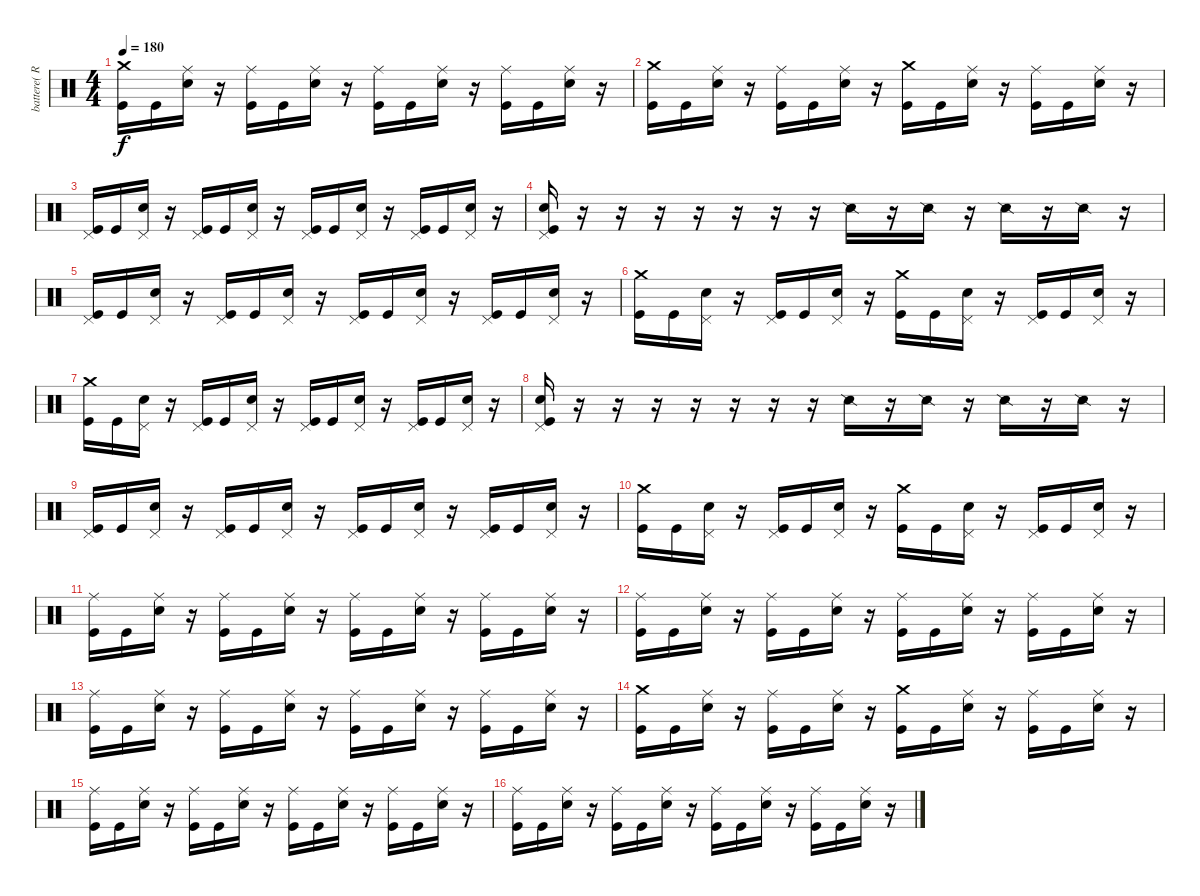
\track ("battere( Rob )" "battere( R") {instrument percussion}
\staff {score}
\articulation defaults
\ts (4 4)
\tempo 180
\clef neutral
\ks c
("Crash medium (hit)" "Kick (hit)").16{dy f} "Kick (hit)".16 ("Ride (middle)" "Snare (hit) 2").16 r.16 ("Ride (middle)" "Kick (hit)").16 "Kick (hit)".16 ("Ride (middle)" "Snare (hit) 2").16 r.16 ("Ride (middle)" "Kick (hit)").16 "Kick (hit)".16 ("Ride (middle)" "Snare (hit) 2").16 r.16 ("Ride (middle)" "Kick (hit)").16 "Kick (hit)".16 ("Ride (middle)" "Snare (hit) 2").16 r.16 |
("Crash medium (hit)" "Kick (hit)").16 "Kick (hit)".16 ("Ride (middle)" "Snare (hit) 2").16 r.16 ("Ride (middle)" "Kick (hit)").16 "Kick (hit)".16 ("Ride (middle)" "Snare (hit) 2").16 r.16 ("Crash medium (hit)" "Kick (hit)").16 "Kick (hit)".16 ("Ride (middle)" "Snare (hit) 2").16 r.16 ("Ride (middle)" "Kick (hit)").16 "Kick (hit)".16 ("Ride (middle)" "Snare (hit) 2").16 r.16 |
("Pedal Hi-Hat (hit)" "Kick (hit)").16 "Kick (hit)".16 ("Pedal Hi-Hat (hit)" "Snare (hit) 2").16 r.16 ("Pedal Hi-Hat (hit)" "Kick (hit)").16 "Kick (hit)".16 ("Pedal Hi-Hat (hit)" "Snare (hit) 2").16 r.16 ("Pedal Hi-Hat (hit)" "Kick (hit)").16 "Kick (hit)".16 ("Pedal Hi-Hat (hit)" "Snare (hit) 2").16 r.16 ("Pedal Hi-Hat (hit)" "Kick (hit)").16 "Kick (hit)".16 ("Pedal Hi-Hat (hit)" "Snare (hit) 2").16 r.16 |
("Pedal Hi-Hat (hit)" "Snare (hit) 2" "Kick (hit)").16 r.16 r.16 r.16 r.16 r.16 r.16 r.16 "Snare (side stick) 2".16 r.16 "Snare (side stick) 2".16 r.16 "Snare (side stick) 2".16 r.16 "Snare (side stick) 2".16 r.16 |
("Pedal Hi-Hat (hit)" "Kick (hit)").16 "Kick (hit)".16 ("Pedal Hi-Hat (hit)" "Snare (hit) 2").16 r.16 ("Pedal Hi-Hat (hit)" "Kick (hit)").16 "Kick (hit)".16 ("Pedal Hi-Hat (hit)" "Snare (hit) 2").16 r.16 ("Pedal Hi-Hat (hit)" "Kick (hit)").16 "Kick (hit)".16 ("Pedal Hi-Hat (hit)" "Snare (hit) 2").16 r.16 ("Pedal Hi-Hat (hit)" "Kick (hit)").16 "Kick (hit)".16 ("Pedal Hi-Hat (hit)" "Snare (hit) 2").16 r.16 |
("Crash medium (hit)" "Kick (hit)").16 "Kick (hit)".16 ("Pedal Hi-Hat (hit)" "Snare (hit) 2").16 r.16 ("Pedal Hi-Hat (hit)" "Kick (hit)").16 "Kick (hit)".16 ("Pedal Hi-Hat (hit)" "Snare (hit) 2").16 r.16 ("Crash medium (hit)" "Kick (hit)").16 "Kick (hit)".16 ("Pedal Hi-Hat (hit)" "Snare (hit) 2").16 r.16 ("Pedal Hi-Hat (hit)" "Kick (hit)").16 "Kick (hit)".16 ("Pedal Hi-Hat (hit)" "Snare (hit) 2").16 r.16 |
("Crash medium (hit)" "Kick (hit)").16 "Kick (hit)".16 ("Pedal Hi-Hat (hit)" "Snare (hit) 2").16 r.16 ("Pedal Hi-Hat (hit)" "Kick (hit)").16 "Kick (hit)".16 ("Pedal Hi-Hat (hit)" "Snare (hit) 2").16 r.16 ("Pedal Hi-Hat (hit)" "Kick (hit)").16 "Kick (hit)".16 ("Pedal Hi-Hat (hit)" "Snare (hit) 2").16 r.16 ("Pedal Hi-Hat (hit)" "Kick (hit)").16 "Kick (hit)".16 ("Pedal Hi-Hat (hit)" "Snare (hit) 2").16 r.16 |
("Pedal Hi-Hat (hit)" "Snare (hit) 2" "Kick (hit)").16 r.16 r.16 r.16 r.16 r.16 r.16 r.16 "Snare (side stick) 2".16 r.16 "Snare (side stick) 2".16 r.16 "Snare (side stick) 2".16 r.16 "Snare (side stick) 2".16 r.16 |
("Pedal Hi-Hat (hit)" "Kick (hit)").16 "Kick (hit)".16 ("Pedal Hi-Hat (hit)" "Snare (hit) 2").16 r.16 ("Pedal Hi-Hat (hit)" "Kick (hit)").16 "Kick (hit)".16 ("Pedal Hi-Hat (hit)" "Snare (hit) 2").16 r.16 ("Pedal Hi-Hat (hit)" "Kick (hit)").16 "Kick (hit)".16 ("Pedal Hi-Hat (hit)" "Snare (hit) 2").16 r.16 ("Pedal Hi-Hat (hit)" "Kick (hit)").16 "Kick (hit)".16 ("Pedal Hi-Hat (hit)" "Snare (hit) 2").16 r.16 |
("Crash medium (hit)" "Kick (hit)").16 "Kick (hit)".16 ("Pedal Hi-Hat (hit)" "Snare (hit) 2").16 r.16 ("Pedal Hi-Hat (hit)" "Kick (hit)").16 "Kick (hit)".16 ("Pedal Hi-Hat (hit)" "Snare (hit) 2").16 r.16 ("Crash medium (hit)" "Kick (hit)").16 "Kick (hit)".16 ("Pedal Hi-Hat (hit)" "Snare (hit) 2").16 r.16 ("Pedal Hi-Hat (hit)" "Kick (hit)").16 "Kick (hit)".16 ("Pedal Hi-Hat (hit)" "Snare (hit) 2").16 r.16 |
("Ride (middle)" "Kick (hit)").16 "Kick (hit)".16 ("Ride (middle)" "Snare (hit) 2").16 r.16 ("Ride (middle)" "Kick (hit)").16 "Kick (hit)".16 ("Ride (middle)" "Snare (hit) 2").16 r.16 ("Ride (middle)" "Kick (hit)").16 "Kick (hit)".16 ("Ride (middle)" "Snare (hit) 2").16 r.16 ("Ride (middle)" "Kick (hit)").16 "Kick (hit)".16 ("Ride (middle)" "Snare (hit) 2").16 r.16 |
("Ride (middle)" "Kick (hit)").16 "Kick (hit)".16 ("Ride (middle)" "Snare (hit) 2").16 r.16 ("Ride (middle)" "Kick (hit)").16 "Kick (hit)".16 ("Ride (middle)" "Snare (hit) 2").16 r.16 ("Ride (middle)" "Kick (hit)").16 "Kick (hit)".16 ("Ride (middle)" "Snare (hit) 2").16 r.16 ("Ride (middle)" "Kick (hit)").16 "Kick (hit)".16 ("Ride (middle)" "Snare (hit) 2").16 r.16 |
("Ride (middle)" "Kick (hit)").16 "Kick (hit)".16 ("Ride (middle)" "Snare (hit) 2").16 r.16 ("Ride (middle)" "Kick (hit)").16 "Kick (hit)".16 ("Ride (middle)" "Snare (hit) 2").16 r.16 ("Ride (middle)" "Kick (hit)").16 "Kick (hit)".16 ("Ride (middle)" "Snare (hit) 2").16 r.16 ("Ride (middle)" "Kick (hit)").16 "Kick (hit)".16 ("Ride (middle)" "Snare (hit) 2").16 r.16 |
("Crash medium (hit)" "Kick (hit)").16 "Kick (hit)".16 ("Ride (middle)" "Snare (hit) 2").16 r.16 ("Ride (middle)" "Kick (hit)").16 "Kick (hit)".16 ("Ride (middle)" "Snare (hit) 2").16 r.16 ("Crash medium (hit)" "Kick (hit)").16 "Kick (hit)".16 ("Ride (middle)" "Snare (hit) 2").16 r.16 ("Ride (middle)" "Kick (hit)").16 "Kick (hit)".16 ("Ride (middle)" "Snare (hit) 2").16 r.16 |
("Ride (middle)" "Kick (hit)").16 "Kick (hit)".16 ("Ride (middle)" "Snare (hit) 2").16 r.16 ("Ride (middle)" "Kick (hit)").16 "Kick (hit)".16 ("Ride (middle)" "Snare (hit) 2").16 r.16 ("Ride (middle)" "Kick (hit)").16 "Kick (hit)".16 ("Ride (middle)" "Snare (hit) 2").16 r.16 ("Ride (middle)" "Kick (hit)").16 "Kick (hit)".16 ("Ride (middle)" "Snare (hit) 2").16 r.16 |
("Ride (middle)" "Kick (hit)").16 "Kick (hit)".16 ("Ride (middle)" "Snare (hit) 2").16 r.16 ("Ride (middle)" "Kick (hit)").16 "Kick (hit)".16 ("Ride (middle)" "Snare (hit) 2").16 r.16 ("Ride (middle)" "Kick (hit)").16 "Kick (hit)".16 ("Ride (middle)" "Snare (hit) 2").16 r.16 ("Ride (middle)" "Kick (hit)").16 "Kick (hit)".16 ("Ride (middle)" "Snare (hit) 2").16 r.16
